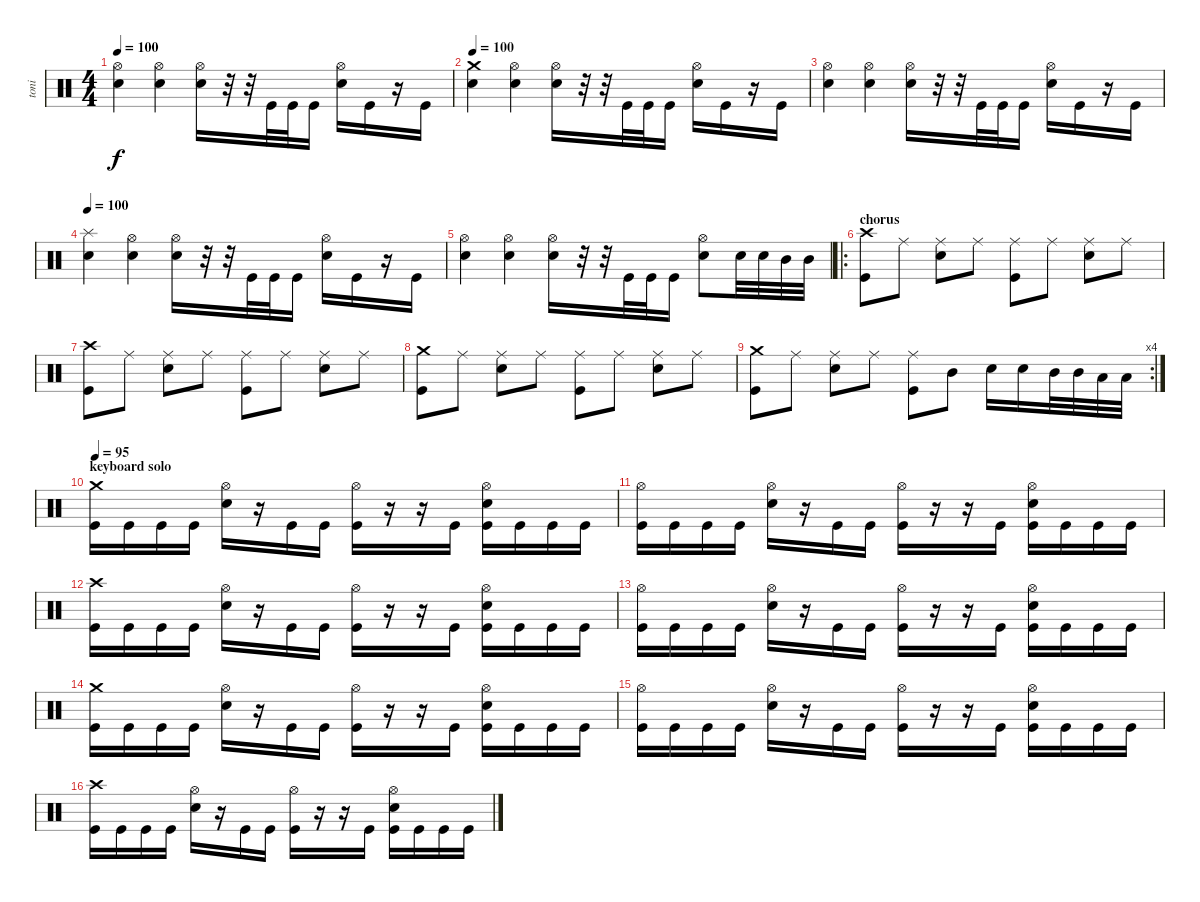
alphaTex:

\track ("toni" "toni") {instrument percussion}
\staff {score}
\articulation defaults
\ts (4 4)
\tempo 100
\clef neutral
\ks c
("Hi-Hat (open)" "Snare (hit) 2").4{dy f} ("Hi-Hat (open)" "Snare (hit) 2").4 ("Hi-Hat (open)" "Snare (hit) 2").16 r.32 r.32 "Kick (hit)".32 "Kick (hit)".32 "Kick (hit)".16 ("Hi-Hat (open)" "Snare (hit) 2").16 "Kick (hit)".16 r.16 "Kick (hit)".16 |
\tempo 100
("Crash medium (hit)" "Snare (hit) 2").4 ("Hi-Hat (open)" "Snare (hit) 2").4 ("Hi-Hat (open)" "Snare (hit) 2").16 r.32 r.32 "Kick (hit)".32 "Kick (hit)".32 "Kick (hit)".16 ("Hi-Hat (open)" "Snare (hit) 2").16 "Kick (hit)".16 r.16 "Kick (hit)".16 |
("Hi-Hat (open)" "Snare (hit) 2").4 ("Hi-Hat (open)" "Snare (hit) 2").4 ("Hi-Hat (open)" "Snare (hit) 2").16 r.32 r.32 "Kick (hit)".32 "Kick (hit)".32 "Kick (hit)".16 ("Hi-Hat (open)" "Snare (hit) 2").16 "Kick (hit)".16 r.16 "Kick (hit)".16 |
\tempo 100
("Splash (hit)" "Snare (hit) 2").4 ("Hi-Hat (open)" "Snare (hit) 2").4 ("Hi-Hat (open)" "Snare (hit) 2").16 r.32 r.32 "Kick (hit)".32 "Kick (hit)".32 "Kick (hit)".16 ("Hi-Hat (open)" "Snare (hit) 2").16 "Kick (hit)".16 r.16 "Kick (hit)".16 |
("Hi-Hat (open)" "Snare (hit) 2").4 ("Hi-Hat (open)" "Snare (hit) 2").4 ("Hi-Hat (open)" "Snare (hit) 2").16 r.32 r.32 "Kick (hit)".32 "Kick (hit)".32 "Kick (hit)".16 ("Hi-Hat (open)" "Snare (hit) 2").8 "Snare (hit) 2".32 "Snare (hit) 2".32 "Mid Tom (hit)".32 "Mid Tom (hit)".32 |
\ro
\section ("" "chorus")
("Crash high (hit)" "Kick (hit)").8 "Ride (middle)".8 ("Ride (middle)" "Snare (hit) 2").8 "Ride (middle)".8 ("Ride (middle)" "Kick (hit)").8 "Ride (middle)".8 ("Ride (middle)" "Snare (hit) 2").8 "Ride (middle)".8 |
("Crash high (hit)" "Kick (hit)").8 "Ride (middle)".8 ("Ride (middle)" "Snare (hit) 2").8 "Ride (middle)".8 ("Ride (middle)" "Kick (hit)").8 "Ride (middle)".8 ("Ride (middle)" "Snare (hit) 2").8 "Ride (middle)".8 |
("Crash medium (hit)" "Kick (hit)").8 "Ride (middle)".8 ("Ride (middle)" "Snare (hit) 2").8 "Ride (middle)".8 ("Ride (middle)" "Kick (hit)").8 "Ride (middle)".8 ("Ride (middle)" "Snare (hit) 2").8 "Ride (middle)".8 |
\rc 4
("Crash medium (hit)" "Kick (hit)").8 "Ride (middle)".8 ("Ride (middle)" "Snare (hit) 2").8 "Ride (middle)".8 ("Ride (middle)" "Kick (hit)").8 "Mid Tom (hit)".8 "Snare (hit) 2".16 "Snare (hit) 2".16 "Mid Tom (hit)".32 "Mid Tom (hit)".32 "Low Tom (hit)".32 "Low Tom (hit)".32 |
\section ("" "keyboard solo")
\tempo 95
("Crash medium (hit)" "Kick (hit)").16 "Kick (hit)".16 "Kick (hit)".16 "Kick (hit)".16 ("Hi-Hat (open)" "Snare (hit) 2").16 r.16 "Kick (hit)".16 "Kick (hit)".16 ("Hi-Hat (open)" "Kick (hit)").16 r.16 r.16 "Kick (hit)".16 ("Hi-Hat (open)" "Snare (hit) 2" "Kick (hit)").16 "Kick (hit)".16 "Kick (hit)".16 "Kick (hit)".16 |
("Hi-Hat (open)" "Kick (hit)").16 "Kick (hit)".16 "Kick (hit)".16 "Kick (hit)".16 ("Hi-Hat (open)" "Snare (hit) 2").16 r.16 "Kick (hit)".16 "Kick (hit)".16 ("Hi-Hat (open)" "Kick (hit)").16 r.16 r.16 "Kick (hit)".16 ("Hi-Hat (open)" "Snare (hit) 2" "Kick (hit)").16 "Kick (hit)".16 "Kick (hit)".16 "Kick (hit)".16 |
("Crash high (hit)" "Kick (hit)").16 "Kick (hit)".16 "Kick (hit)".16 "Kick (hit)".16 ("Hi-Hat (open)" "Snare (hit) 2").16 r.16 "Kick (hit)".16 "Kick (hit)".16 ("Hi-Hat (open)" "Kick (hit)").16 r.16 r.16 "Kick (hit)".16 ("Hi-Hat (open)" "Snare (hit) 2" "Kick (hit)").16 "Kick (hit)".16 "Kick (hit)".16 "Kick (hit)".16 |
("Hi-Hat (open)" "Kick (hit)").16 "Kick (hit)".16 "Kick (hit)".16 "Kick (hit)".16 ("Hi-Hat (open)" "Snare (hit) 2").16 r.16 "Kick (hit)".16 "Kick (hit)".16 ("Hi-Hat (open)" "Kick (hit)").16 r.16 r.16 "Kick (hit)".16 ("Hi-Hat (open)" "Snare (hit) 2" "Kick (hit)").16 "Kick (hit)".16 "Kick (hit)".16 "Kick (hit)".16 |
("Crash medium (hit)" "Kick (hit)").16 "Kick (hit)".16 "Kick (hit)".16 "Kick (hit)".16 ("Hi-Hat (open)" "Snare (hit) 2").16 r.16 "Kick (hit)".16 "Kick (hit)".16 ("Hi-Hat (open)" "Kick (hit)").16 r.16 r.16 "Kick (hit)".16 ("Hi-Hat (open)" "Snare (hit) 2" "Kick (hit)").16 "Kick (hit)".16 "Kick (hit)".16 "Kick (hit)".16 |
("Hi-Hat (open)" "Kick (hit)").16 "Kick (hit)".16 "Kick (hit)".16 "Kick (hit)".16 ("Hi-Hat (open)" "Snare (hit) 2").16 r.16 "Kick (hit)".16 "Kick (hit)".16 ("Hi-Hat (open)" "Kick (hit)").16 r.16 r.16 "Kick (hit)".16 ("Hi-Hat (open)" "Snare (hit) 2" "Kick (hit)").16 "Kick (hit)".16 "Kick (hit)".16 "Kick (hit)".16 |
("Crash high (hit)" "Kick (hit)").16 "Kick (hit)".16 "Kick (hit)".16 "Kick (hit)".16 ("Hi-Hat (open)" "Snare (hit) 2").16 r.16 "Kick (hit)".16 "Kick (hit)".16 ("Hi-Hat (open)" "Kick (hit)").16 r.16 r.16 "Kick (hit)".16 ("Hi-Hat (open)" "Snare (hit) 2" "Kick (hit)").16 "Kick (hit)".16 "Kick (hit)".16 "Kick (hit)".16
